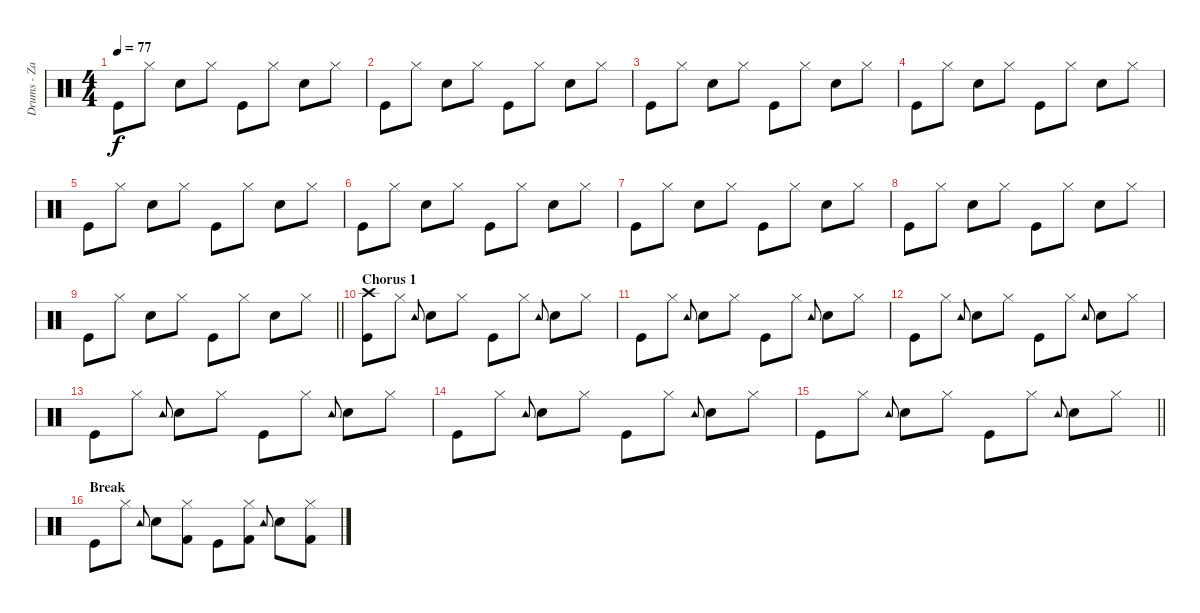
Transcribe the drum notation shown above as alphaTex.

\track ("Drums - Zakk Starkey" "Drums - Za") {instrument percussion}
\staff {score}
\articulation defaults
\ts (4 4)
\tempo 77
\clef neutral
\ks c "Kick (hit)".8{dy f} "Hi-Hat (closed)".8 "Snare (hit) 2".8 "Hi-Hat (closed)".8 "Kick (hit)".8 "Hi-Hat (closed)".8 "Snare (hit) 2".8 "Hi-Hat (closed)".8
|
"Kick (hit)".8 "Hi-Hat (closed)".8 "Snare (hit) 2".8 "Hi-Hat (closed)".8 "Kick (hit)".8 "Hi-Hat (closed)".8 "Snare (hit) 2".8 "Hi-Hat (closed)".8 |
"Kick (hit)".8 "Hi-Hat (closed)".8 "Snare (hit) 2".8 "Hi-Hat (closed)".8 "Kick (hit)".8 "Hi-Hat (closed)".8 "Snare (hit) 2".8 "Hi-Hat (closed)".8 |
"Kick (hit)".8 "Hi-Hat (closed)".8 "Snare (hit) 2".8 "Hi-Hat (closed)".8 "Kick (hit)".8 "Hi-Hat (closed)".8 "Snare (hit) 2".8 "Hi-Hat (closed)".8 |
"Kick (hit)".8 "Hi-Hat (closed)".8 "Snare (hit) 2".8 "Hi-Hat (closed)".8 "Kick (hit)".8 "Hi-Hat (closed)".8 "Snare (hit) 2".8 "Hi-Hat (closed)".8 |
"Kick (hit)".8 "Hi-Hat (closed)".8 "Snare (hit) 2".8 "Hi-Hat (closed)".8 "Kick (hit)".8 "Hi-Hat (closed)".8 "Snare (hit) 2".8 "Hi-Hat (closed)".8 |
"Kick (hit)".8 "Hi-Hat (closed)".8 "Snare (hit) 2".8 "Hi-Hat (closed)".8 "Kick (hit)".8 "Hi-Hat (closed)".8 "Snare (hit) 2".8 "Hi-Hat (closed)".8 |
"Kick (hit)".8 "Hi-Hat (closed)".8 "Snare (hit) 2".8 "Hi-Hat (closed)".8 "Kick (hit)".8 "Hi-Hat (closed)".8 "Snare (hit) 2".8 "Hi-Hat (closed)".8 |
\barLineRight lightlight "Kick (hit)".8 "Hi-Hat (closed)".8 "Snare (hit) 2".8 "Hi-Hat (closed)".8 "Kick (hit)".8 "Hi-Hat (closed)".8 "Snare (hit) 2".8 "Hi-Hat (closed)".8
|
\section ("" "Chorus 1")
("Crash high (hit)" "Kick (hit)").8 "Hi-Hat (closed)".8 "Tambourine (hit)".8{gr onbeat} "Snare (hit) 2".8 "Hi-Hat (closed)".8 "Kick (hit)".8 "Hi-Hat (closed)".8 "Tambourine (hit)".8{gr onbeat} "Snare (hit) 2".8 "Hi-Hat (closed)".8 |
"Kick (hit)".8 "Hi-Hat (closed)".8 "Tambourine (hit)".8{gr onbeat} "Snare (hit) 2".8 "Hi-Hat (closed)".8 "Kick (hit)".8 "Hi-Hat (closed)".8 "Tambourine (hit)".8{gr onbeat} "Snare (hit) 2".8 "Hi-Hat (closed)".8 |
"Kick (hit)".8 "Hi-Hat (closed)".8 "Tambourine (hit)".8{gr onbeat} "Snare (hit) 2".8 "Hi-Hat (closed)".8 "Kick (hit)".8 "Hi-Hat (closed)".8 "Tambourine (hit)".8{gr onbeat} "Snare (hit) 2".8 "Hi-Hat (closed)".8 |
"Kick (hit)".8 "Hi-Hat (closed)".8 "Tambourine (hit)".8{gr onbeat} "Snare (hit) 2".8 "Hi-Hat (closed)".8 "Kick (hit)".8 "Hi-Hat (closed)".8 "Tambourine (hit)".8{gr onbeat} "Snare (hit) 2".8 "Hi-Hat (closed)".8 |
"Kick (hit)".8 "Hi-Hat (closed)".8 "Tambourine (hit)".8{gr onbeat} "Snare (hit) 2".8 "Hi-Hat (closed)".8 "Kick (hit)".8 "Hi-Hat (closed)".8 "Tambourine (hit)".8{gr onbeat} "Snare (hit) 2".8 "Hi-Hat (closed)".8 |
\barLineRight lightlight "Kick (hit)".8 "Hi-Hat (closed)".8 "Tambourine (hit)".8{gr onbeat} "Snare (hit) 2".8 "Hi-Hat (closed)".8 "Kick (hit)".8 "Hi-Hat (closed)".8 "Tambourine (hit)".8{gr onbeat} "Snare (hit) 2".8 "Hi-Hat (closed)".8
|
\section ("" "Break")
"Kick (hit)".8 "Hi-Hat (closed)".8 "Tambourine (hit)".8{gr onbeat} "Snare (hit) 2".8 ("Hi-Hat (closed)" "Kick (hit) 2").8 "Kick (hit)".8 ("Hi-Hat (closed)" "Kick (hit) 2").8 "Tambourine (hit)".8{gr onbeat} "Snare (hit) 2".8 ("Hi-Hat (closed)" "Kick (hit) 2").8
